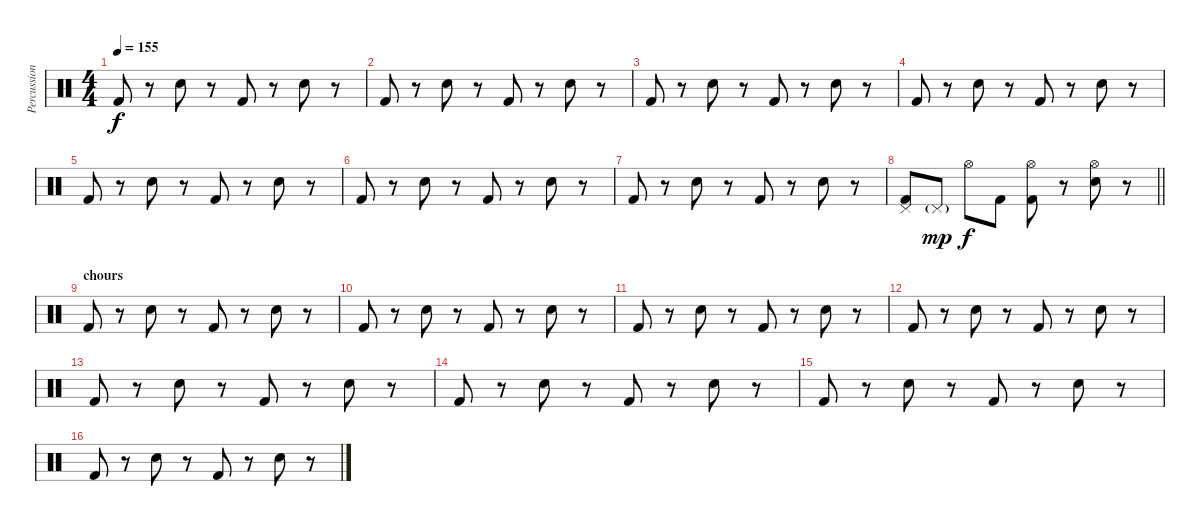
\track ("Percussions" "Percussion") {instrument percussion}
\staff {score}
\articulation defaults
\ts (4 4)
\tempo 155
\clef neutral
\ks c "Kick (hit) 2".8{dy f}
r.8 "Snare (hit) 2".8 r.8 "Kick (hit) 2".8 r.8 "Snare (hit) 2".8 r.8 |
"Kick (hit) 2".8 r.8 "Snare (hit) 2".8 r.8 "Kick (hit) 2".8 r.8 "Snare (hit) 2".8 r.8 |
"Kick (hit) 2".8 r.8 "Snare (hit) 2".8 r.8 "Kick (hit) 2".8 r.8 "Snare (hit) 2".8 r.8 |
"Kick (hit) 2".8 r.8 "Snare (hit) 2".8 r.8 "Kick (hit) 2".8 r.8 "Snare (hit) 2".8 r.8 |
"Kick (hit) 2".8 r.8 "Snare (hit) 2".8 r.8 "Kick (hit) 2".8 r.8 "Snare (hit) 2".8 r.8 |
"Kick (hit) 2".8 r.8 "Snare (hit) 2".8 r.8 "Kick (hit) 2".8 r.8 "Snare (hit) 2".8 r.8 |
"Kick (hit) 2".8 r.8 "Snare (hit) 2".8 r.8 "Kick (hit) 2".8 r.8 "Snare (hit) 2".8 r.8 |
\barLineRight lightlight
("Pedal Hi-Hat (hit)" "Kick (hit) 2").8 "Pedal Hi-Hat (hit)"{g}.8{dy mp} "Hi-Hat (open)".8{dy f} "Kick (hit) 2".8 ("Hi-Hat (open)" "Kick (hit) 2").8 r.8 ("Hi-Hat (open)" "Snare (hit) 2").8 r.8 |
\section ("" "chours")
"Kick (hit) 2".8 r.8 "Snare (hit) 2".8 r.8 "Kick (hit) 2".8 r.8 "Snare (hit) 2".8 r.8 |
"Kick (hit) 2".8 r.8 "Snare (hit) 2".8 r.8 "Kick (hit) 2".8 r.8 "Snare (hit) 2".8 r.8 |
"Kick (hit) 2".8 r.8 "Snare (hit) 2".8 r.8 "Kick (hit) 2".8 r.8 "Snare (hit) 2".8 r.8 |
"Kick (hit) 2".8 r.8 "Snare (hit) 2".8 r.8 "Kick (hit) 2".8 r.8 "Snare (hit) 2".8 r.8 |
"Kick (hit) 2".8 r.8 "Snare (hit) 2".8 r.8 "Kick (hit) 2".8 r.8 "Snare (hit) 2".8 r.8 |
"Kick (hit) 2".8 r.8 "Snare (hit) 2".8 r.8 "Kick (hit) 2".8 r.8 "Snare (hit) 2".8 r.8 |
"Kick (hit) 2".8 r.8 "Snare (hit) 2".8 r.8 "Kick (hit) 2".8 r.8 "Snare (hit) 2".8 r.8 |
"Kick (hit) 2".8 r.8 "Snare (hit) 2".8 r.8 "Kick (hit) 2".8 r.8 "Snare (hit) 2".8 r.8
